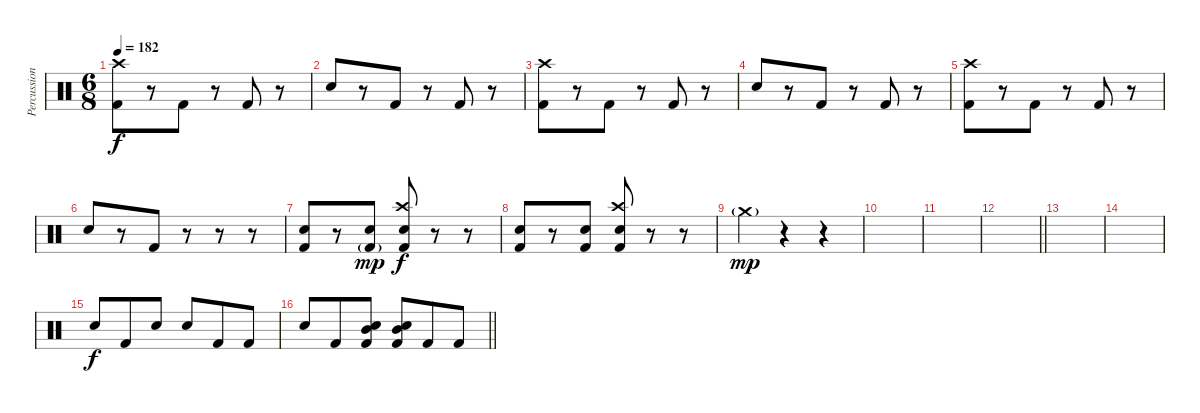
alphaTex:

\track ("Percussion" "Percussion") {instrument percussion}
\staff {score}
\articulation defaults
\ts (6 8)
\tempo 182
\clef neutral
\ks c
("Kick (hit) 2" "Crash high (hit)").8{dy f} r.8 "Kick (hit) 2".8 r.8 "Kick (hit) 2".8 r.8 |
"Snare (hit) 2".8 r.8 "Kick (hit) 2".8 r.8 "Kick (hit) 2".8 r.8 |
("Kick (hit) 2" "Crash high (hit)").8 r.8 "Kick (hit) 2".8 r.8 "Kick (hit) 2".8 r.8 |
"Snare (hit) 2".8 r.8 "Kick (hit) 2".8 r.8 "Kick (hit) 2".8 r.8 |
("Kick (hit) 2" "Crash high (hit)").8 r.8 "Kick (hit) 2".8 r.8 "Kick (hit) 2".8 r.8 |
"Snare (hit) 2".8 r.8 "Kick (hit) 2".8 r.8 r.8 r.8 |
("Kick (hit) 2" "Snare (hit) 2").8 r.8 ("Kick (hit) 2"{g} "Snare (hit) 2").8{dy mp} ("Kick (hit) 2" "Snare (hit) 2" "Crash high (hit)").8{dy f} r.8 r.8 |
("Kick (hit) 2" "Snare (hit) 2").8 r.8 ("Kick (hit) 2" "Snare (hit) 2").8 ("Kick (hit) 2" "Snare (hit) 2" "Crash high (hit)").8 r.8 r.8 |
"Crash medium (hit)"{g}.4{dy mp} r.4 r.4 |
|
|
\barLineRight lightlight
|
|
|
"Snare (hit) 2".8{dy f} "Kick (hit) 2".8 "Snare (hit) 2".8 "Snare (hit) 2".8 "Kick (hit) 2".8 "Kick (hit) 2".8 |
\barLineRight lightlight "Snare (hit) 2".8 "Kick (hit) 2".8
("Kick (hit) 2" "Snare (hit) 2" "Mid Tom (hit)").8 ("Kick (hit) 2" "Snare (hit) 2" "Mid Tom (hit)").8 "Kick (hit) 2".8 "Kick (hit) 2".8
